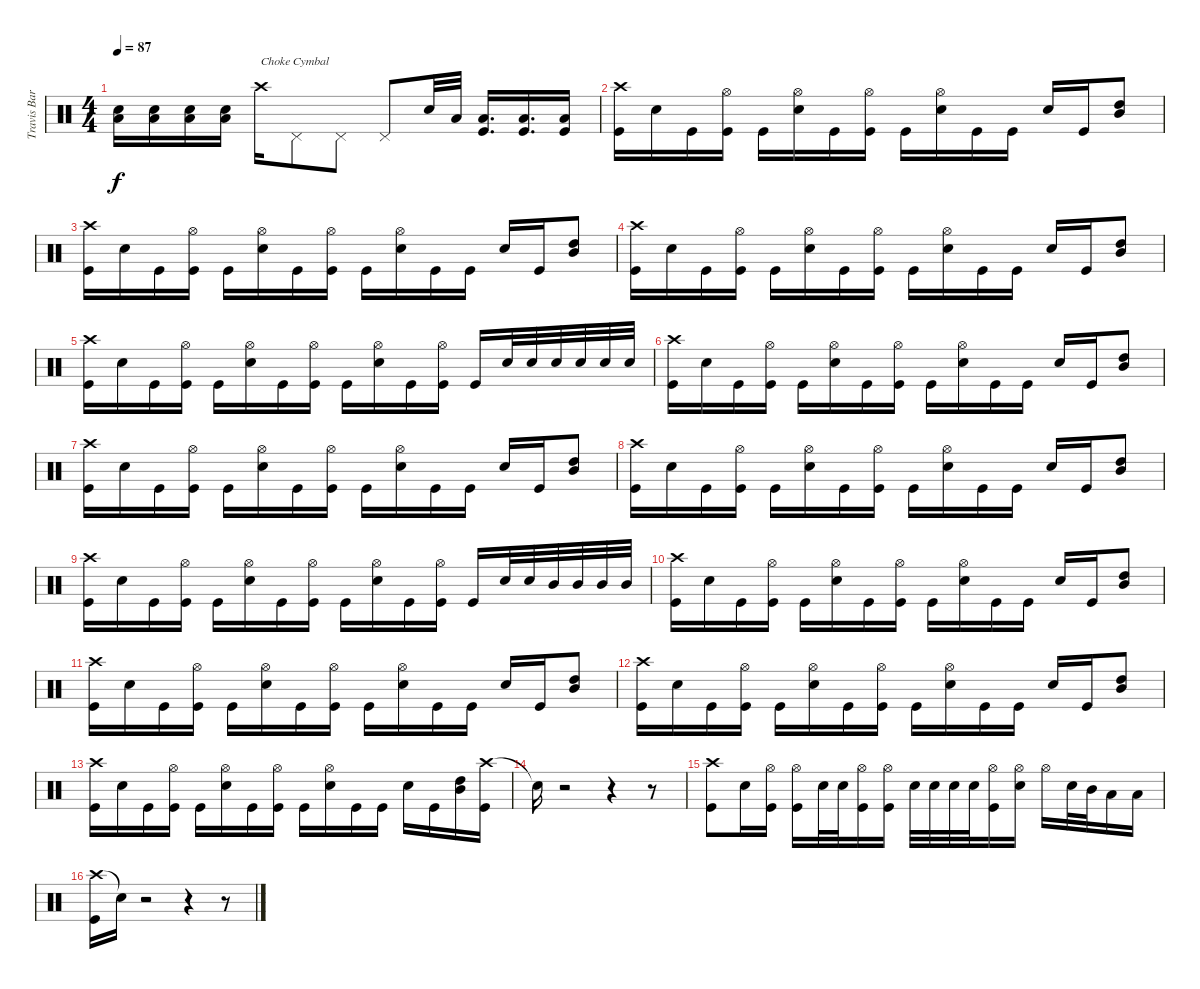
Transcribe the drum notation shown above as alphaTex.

\track ("Travis Barker" "Travis Bar") {instrument percussion}
\staff {score}
\articulation defaults
\ts (4 4)
\tempo 87
\clef neutral
\ks c
("Low Tom (hit)" "Electric Snare (hit)").16{dy f} ("Low Tom (hit)" "Electric Snare (hit)").16 ("Low Tom (hit)" "Electric Snare (hit)").16 ("Low Tom (hit)" "Electric Snare (hit)").16 "Crash high (hit)".16{txt "Choke Cymbal"} "Pedal Hi-Hat (hit)".8 "Pedal Hi-Hat (hit)".8 "Pedal Hi-Hat (hit)".8 "Electric Snare (hit)".32 "Low Tom (hit)".32 ("Low Tom (hit)" "Kick (hit)").16{d} ("Low Tom (hit)" "Kick (hit)").16{d} ("Low Tom (hit)" "Kick (hit)").16 |
("Crash high (hit)" "Kick (hit)").16 "Electric Snare (hit)".16 "Kick (hit)".16 ("Hi-Hat (open)" "Kick (hit)").16 "Kick (hit)".16 ("Hi-Hat (open)" "Electric Snare (hit)").16 "Kick (hit)".16 ("Hi-Hat (open)" "Kick (hit)").16 "Kick (hit)".16 ("Hi-Hat (open)" "Electric Snare (hit)").16 "Kick (hit)".16 "Kick (hit)".16 "Electric Snare (hit)".16 "Kick (hit)".16 ("High Tom (hit)" "Mid Tom (hit)").8 |
("Crash high (hit)" "Kick (hit)").16 "Electric Snare (hit)".16 "Kick (hit)".16 ("Hi-Hat (open)" "Kick (hit)").16 "Kick (hit)".16 ("Hi-Hat (open)" "Electric Snare (hit)").16 "Kick (hit)".16 ("Hi-Hat (open)" "Kick (hit)").16 "Kick (hit)".16 ("Hi-Hat (open)" "Electric Snare (hit)").16 "Kick (hit)".16 "Kick (hit)".16 "Electric Snare (hit)".16 "Kick (hit)".16 ("High Tom (hit)" "Mid Tom (hit)").8 |
("Crash high (hit)" "Kick (hit)").16 "Electric Snare (hit)".16 "Kick (hit)".16 ("Hi-Hat (open)" "Kick (hit)").16 "Kick (hit)".16 ("Hi-Hat (open)" "Electric Snare (hit)").16 "Kick (hit)".16 ("Hi-Hat (open)" "Kick (hit)").16 "Kick (hit)".16 ("Hi-Hat (open)" "Electric Snare (hit)").16 "Kick (hit)".16 "Kick (hit)".16 "Electric Snare (hit)".16 "Kick (hit)".16 ("High Tom (hit)" "Mid Tom (hit)").8 |
("Crash high (hit)" "Kick (hit)").16 "Electric Snare (hit)".16 "Kick (hit)".16 ("Hi-Hat (open)" "Kick (hit)").16 "Kick (hit)".16 ("Hi-Hat (open)" "Electric Snare (hit)").16 "Kick (hit)".16 ("Hi-Hat (open)" "Kick (hit)").16 "Kick (hit)".16 ("Hi-Hat (open)" "Electric Snare (hit)").16 "Kick (hit)".16 ("Hi-Hat (open)" "Kick (hit)").16 "Kick (hit)".16 "Electric Snare (hit)".32 "Electric Snare (hit)".32 "Electric Snare (hit)".32 "Electric Snare (hit)".32 "Electric Snare (hit)".32 "Electric Snare (hit)".32 |
("Crash high (hit)" "Kick (hit)").16 "Electric Snare (hit)".16 "Kick (hit)".16 ("Hi-Hat (open)" "Kick (hit)").16 "Kick (hit)".16 ("Hi-Hat (open)" "Electric Snare (hit)").16 "Kick (hit)".16 ("Hi-Hat (open)" "Kick (hit)").16 "Kick (hit)".16 ("Hi-Hat (open)" "Electric Snare (hit)").16 "Kick (hit)".16 "Kick (hit)".16 "Electric Snare (hit)".16 "Kick (hit)".16 ("High Tom (hit)" "Mid Tom (hit)").8 |
("Crash high (hit)" "Kick (hit)").16 "Electric Snare (hit)".16 "Kick (hit)".16 ("Hi-Hat (open)" "Kick (hit)").16 "Kick (hit)".16 ("Hi-Hat (open)" "Electric Snare (hit)").16 "Kick (hit)".16 ("Hi-Hat (open)" "Kick (hit)").16 "Kick (hit)".16 ("Hi-Hat (open)" "Electric Snare (hit)").16 "Kick (hit)".16 "Kick (hit)".16 "Electric Snare (hit)".16 "Kick (hit)".16 ("High Tom (hit)" "Mid Tom (hit)").8 |
("Crash high (hit)" "Kick (hit)").16 "Electric Snare (hit)".16 "Kick (hit)".16 ("Hi-Hat (open)" "Kick (hit)").16 "Kick (hit)".16 ("Hi-Hat (open)" "Electric Snare (hit)").16 "Kick (hit)".16 ("Hi-Hat (open)" "Kick (hit)").16 "Kick (hit)".16 ("Hi-Hat (open)" "Electric Snare (hit)").16 "Kick (hit)".16 "Kick (hit)".16 "Electric Snare (hit)".16 "Kick (hit)".16 ("High Tom (hit)" "Mid Tom (hit)").8 |
("Crash high (hit)" "Kick (hit)").16 "Electric Snare (hit)".16 "Kick (hit)".16 ("Hi-Hat (open)" "Kick (hit)").16 "Kick (hit)".16 ("Hi-Hat (open)" "Electric Snare (hit)").16 "Kick (hit)".16 ("Hi-Hat (open)" "Kick (hit)").16 "Kick (hit)".16 ("Hi-Hat (open)" "Electric Snare (hit)").16 "Kick (hit)".16 ("Hi-Hat (open)" "Kick (hit)").16 "Kick (hit)".16 "Electric Snare (hit)".32 "Electric Snare (hit)".32 "Mid Tom (hit)".32 "Mid Tom (hit)".32 "Mid Tom (hit)".32 "Mid Tom (hit)".32 |
("Crash high (hit)" "Kick (hit)").16 "Electric Snare (hit)".16 "Kick (hit)".16 ("Hi-Hat (open)" "Kick (hit)").16 "Kick (hit)".16 ("Hi-Hat (open)" "Electric Snare (hit)").16 "Kick (hit)".16 ("Hi-Hat (open)" "Kick (hit)").16 "Kick (hit)".16 ("Hi-Hat (open)" "Electric Snare (hit)").16 "Kick (hit)".16 "Kick (hit)".16 "Electric Snare (hit)".16 "Kick (hit)".16 ("High Tom (hit)" "Mid Tom (hit)").8 |
("Crash high (hit)" "Kick (hit)").16 "Electric Snare (hit)".16 "Kick (hit)".16 ("Hi-Hat (open)" "Kick (hit)").16 "Kick (hit)".16 ("Hi-Hat (open)" "Electric Snare (hit)").16 "Kick (hit)".16 ("Hi-Hat (open)" "Kick (hit)").16 "Kick (hit)".16 ("Hi-Hat (open)" "Electric Snare (hit)").16 "Kick (hit)".16 "Kick (hit)".16 "Electric Snare (hit)".16 "Kick (hit)".16 ("High Tom (hit)" "Mid Tom (hit)").8 |
("Crash high (hit)" "Kick (hit)").16 "Electric Snare (hit)".16 "Kick (hit)".16 ("Hi-Hat (open)" "Kick (hit)").16 "Kick (hit)".16 ("Hi-Hat (open)" "Electric Snare (hit)").16 "Kick (hit)".16 ("Hi-Hat (open)" "Kick (hit)").16 "Kick (hit)".16 ("Hi-Hat (open)" "Electric Snare (hit)").16 "Kick (hit)".16 "Kick (hit)".16 "Electric Snare (hit)".16 "Kick (hit)".16 ("High Tom (hit)" "Mid Tom (hit)").8 |
("Crash high (hit)" "Kick (hit)").16 "Electric Snare (hit)".16 "Kick (hit)".16 ("Hi-Hat (open)" "Kick (hit)").16 "Kick (hit)".16 ("Hi-Hat (open)" "Electric Snare (hit)").16 "Kick (hit)".16 ("Hi-Hat (open)" "Kick (hit)").16 "Kick (hit)".16 ("Hi-Hat (open)" "Electric Snare (hit)").16 "Kick (hit)".16 "Kick (hit)".16 "Electric Snare (hit)".16 "Kick (hit)".16 ("High Tom (hit)" "Mid Tom (hit)").16 ("Crash high (hit)" "Kick (hit)").16 |
"Snare (hit)"{t}.16{volume 0} r.2 r.4 r.8 |
("Crash high (hit)" "Kick (hit)").8{volume 16} "Electric Snare (hit)".16 ("Hi-Hat (open)" "Kick (hit)").16 ("Hi-Hat (open)" "Kick (hit)").16 "Electric Snare (hit)".32 "Electric Snare (hit)".32 ("Hi-Hat (open)" "Kick (hit)").16 ("Hi-Hat (open)" "Kick (hit)").16 "Electric Snare (hit)".32 "Electric Snare (hit)".32 "Electric Snare (hit)".32 "Electric Snare (hit)".32 ("Hi-Hat (open)" "Kick (hit)").16 ("Hi-Hat (open)" "Electric Snare (hit)").16 "Hi-Hat (open)".16 "Electric Snare (hit)".32 "Mid Tom (hit)".32 "Low Tom (hit)".16 "Low Tom (hit)".16 |
("Crash high (hit)" "Kick (hit)").16 "Snare (hit)"{t}.16{volume 0} r.2 r.4 r.8
